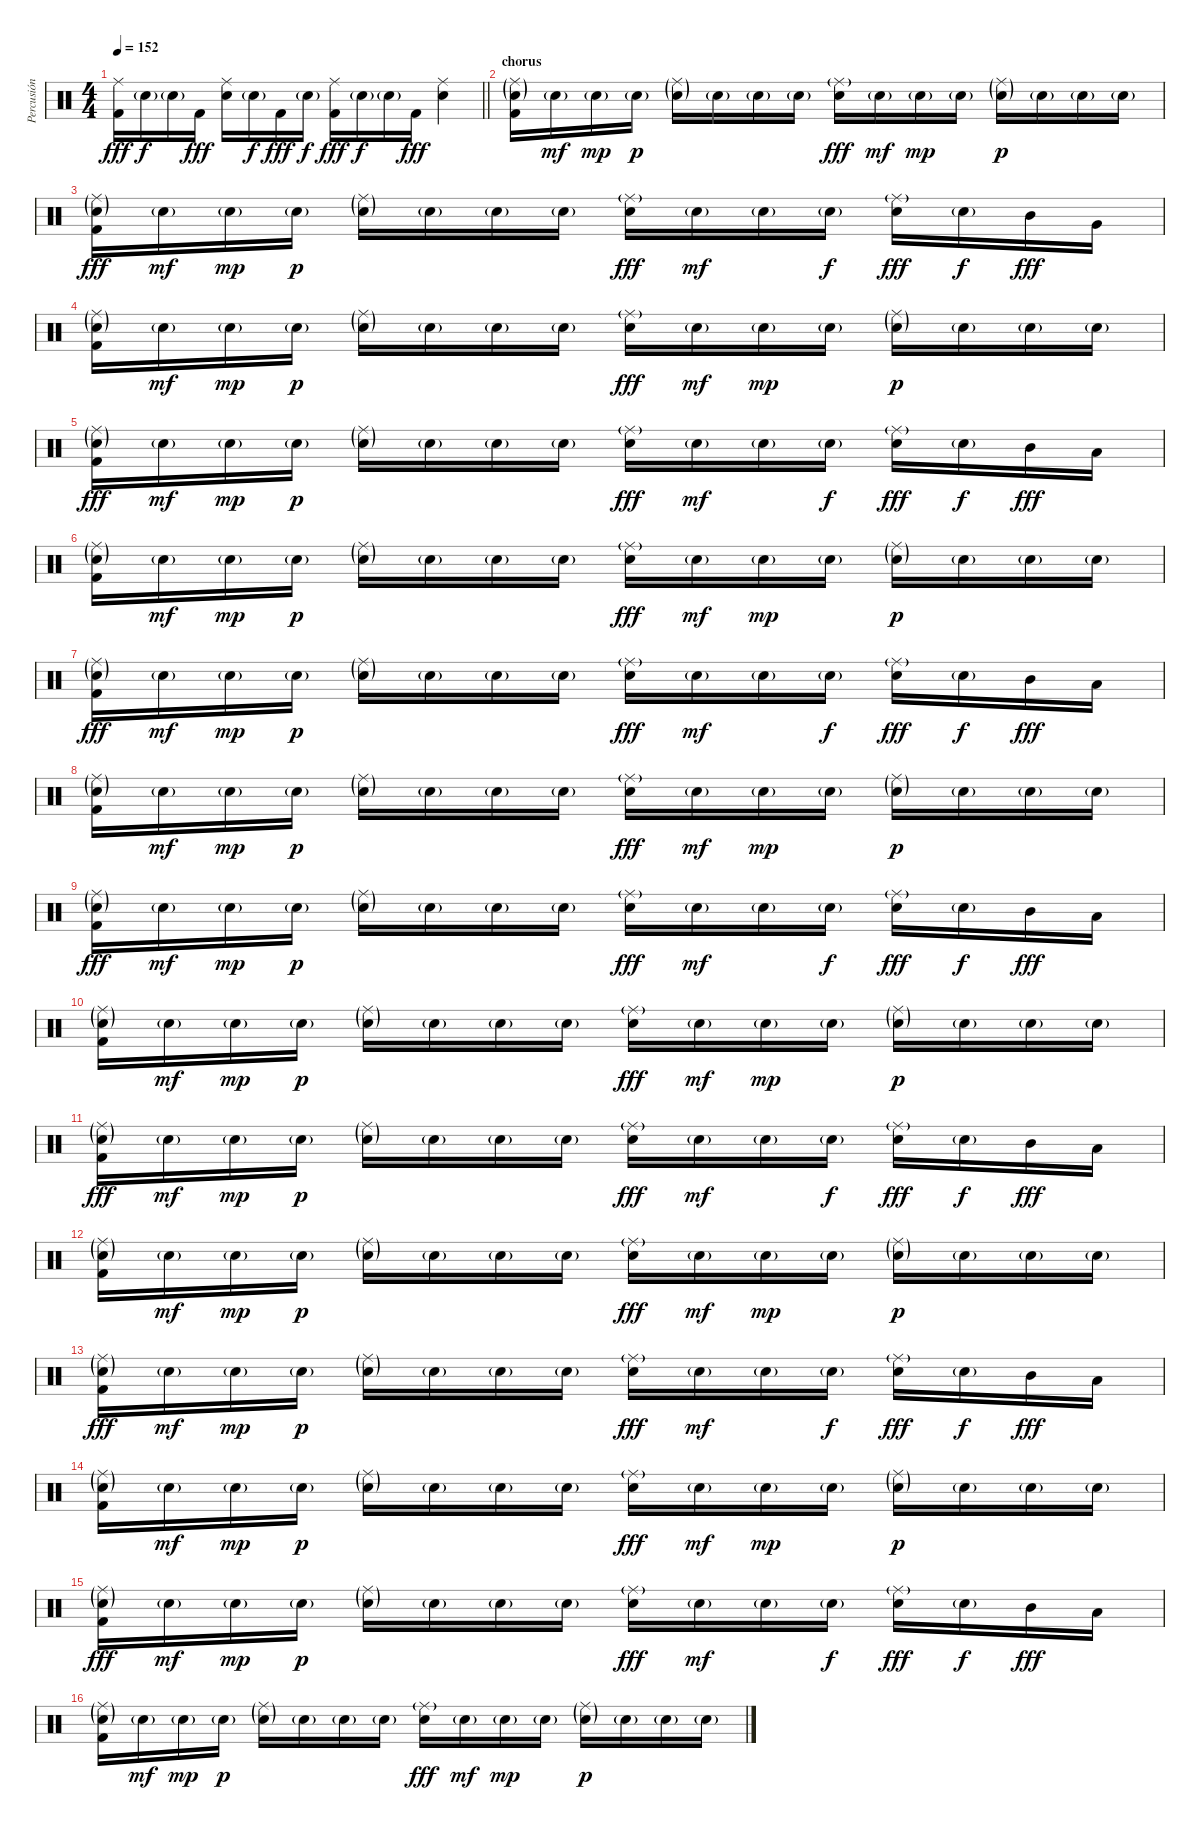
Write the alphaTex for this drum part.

\track ("Percusión" "Percusión") {instrument percussion}
\staff {score}
\articulation defaults
\ts (4 4)
\tempo 152
\clef neutral
\barLineRight lightlight
\ks c
("Ride (middle)" "Kick (hit) 2").16{dy fff} "Snare (hit) 2"{g}.16{dy f} "Snare (hit) 2"{g}.16 "Kick (hit) 2".16{dy fff} ("Ride (middle)" "Snare (hit) 2").16 "Snare (hit) 2"{g}.16{dy f} "Kick (hit) 2".16{dy fff} "Snare (hit) 2"{g}.16{dy f} ("Ride (middle)" "Kick (hit) 2").16{dy fff} "Snare (hit) 2"{g}.16{dy f} "Snare (hit) 2"{g}.16 "Kick (hit) 2".16{dy fff} ("Ride (middle)" "Snare (hit) 2").4 |
\section ("" "chorus")
("Ride (middle)"{g} "Snare (hit) 2"{g} "Kick (hit) 2").16 "Snare (hit) 2"{g}.16{dy mf} "Snare (hit) 2"{g}.16{dy mp} "Snare (hit) 2"{g}.16{dy p} ("Ride (middle)"{g} "Snare (hit) 2"{g}).16 "Snare (hit) 2"{g}.16 "Snare (hit) 2"{g}.16 "Snare (hit) 2"{g}.16 ("Ride (middle)"{g} "Snare (hit) 2").16{dy fff} "Snare (hit) 2"{g}.16{dy mf} "Snare (hit) 2"{g}.16{dy mp} "Snare (hit) 2"{g}.16 ("Ride (middle)"{g} "Snare (hit) 2"{g}).16{dy p} "Snare (hit) 2"{g}.16 "Snare (hit) 2"{g}.16 "Snare (hit) 2"{g}.16 |
("Ride (middle)"{g} "Snare (hit) 2"{g} "Kick (hit) 2").16{dy fff} "Snare (hit) 2"{g}.16{dy mf} "Snare (hit) 2"{g}.16{dy mp} "Snare (hit) 2"{g}.16{dy p} ("Ride (middle)"{g} "Snare (hit) 2"{g}).16 "Snare (hit) 2"{g}.16 "Snare (hit) 2"{g}.16 "Snare (hit) 2"{g}.16 ("Ride (middle)"{g} "Snare (hit) 2").16{dy fff} "Snare (hit) 2"{g}.16{dy mf} "Snare (hit) 2"{g}.16 "Snare (hit) 2"{g}.16{dy f} ("Ride (middle)"{g} "Snare (hit) 2").16{dy fff} "Snare (hit) 2"{g}.16{dy f} "Mid Tom (hit)".16{dy fff} "Very Low Tom (hit)".16 |
("Ride (middle)"{g} "Snare (hit) 2"{g} "Kick (hit) 2").16 "Snare (hit) 2"{g}.16{dy mf} "Snare (hit) 2"{g}.16{dy mp} "Snare (hit) 2"{g}.16{dy p} ("Ride (middle)"{g} "Snare (hit) 2"{g}).16 "Snare (hit) 2"{g}.16 "Snare (hit) 2"{g}.16 "Snare (hit) 2"{g}.16 ("Ride (middle)"{g} "Snare (hit) 2").16{dy fff} "Snare (hit) 2"{g}.16{dy mf} "Snare (hit) 2"{g}.16{dy mp} "Snare (hit) 2"{g}.16 ("Ride (middle)"{g} "Snare (hit) 2"{g}).16{dy p} "Snare (hit) 2"{g}.16 "Snare (hit) 2"{g}.16 "Snare (hit) 2"{g}.16 |
("Ride (middle)"{g} "Snare (hit) 2"{g} "Kick (hit) 2").16{dy fff} "Snare (hit) 2"{g}.16{dy mf} "Snare (hit) 2"{g}.16{dy mp} "Snare (hit) 2"{g}.16{dy p} ("Ride (middle)"{g} "Snare (hit) 2"{g}).16 "Snare (hit) 2"{g}.16 "Snare (hit) 2"{g}.16 "Snare (hit) 2"{g}.16 ("Ride (middle)"{g} "Snare (hit) 2").16{dy fff} "Snare (hit) 2"{g}.16{dy mf} "Snare (hit) 2"{g}.16 "Snare (hit) 2"{g}.16{dy f} ("Ride (middle)"{g} "Snare (hit) 2").16{dy fff} "Snare (hit) 2"{g}.16{dy f} "Mid Tom (hit)".16{dy fff} "Low Tom (hit)".16 |
("Ride (middle)"{g} "Snare (hit) 2"{g} "Kick (hit) 2").16 "Snare (hit) 2"{g}.16{dy mf} "Snare (hit) 2"{g}.16{dy mp} "Snare (hit) 2"{g}.16{dy p} ("Ride (middle)"{g} "Snare (hit) 2"{g}).16 "Snare (hit) 2"{g}.16 "Snare (hit) 2"{g}.16 "Snare (hit) 2"{g}.16 ("Ride (middle)"{g} "Snare (hit) 2").16{dy fff} "Snare (hit) 2"{g}.16{dy mf} "Snare (hit) 2"{g}.16{dy mp} "Snare (hit) 2"{g}.16 ("Ride (middle)"{g} "Snare (hit) 2"{g}).16{dy p} "Snare (hit) 2"{g}.16 "Snare (hit) 2"{g}.16 "Snare (hit) 2"{g}.16 |
("Ride (middle)"{g} "Snare (hit) 2"{g} "Kick (hit) 2").16{dy fff} "Snare (hit) 2"{g}.16{dy mf} "Snare (hit) 2"{g}.16{dy mp} "Snare (hit) 2"{g}.16{dy p} ("Ride (middle)"{g} "Snare (hit) 2"{g}).16 "Snare (hit) 2"{g}.16 "Snare (hit) 2"{g}.16 "Snare (hit) 2"{g}.16 ("Ride (middle)"{g} "Snare (hit) 2").16{dy fff} "Snare (hit) 2"{g}.16{dy mf} "Snare (hit) 2"{g}.16 "Snare (hit) 2"{g}.16{dy f} ("Ride (middle)"{g} "Snare (hit) 2").16{dy fff} "Snare (hit) 2"{g}.16{dy f} "Mid Tom (hit)".16{dy fff} "Low Tom (hit)".16 |
("Ride (middle)"{g} "Snare (hit) 2"{g} "Kick (hit) 2").16 "Snare (hit) 2"{g}.16{dy mf} "Snare (hit) 2"{g}.16{dy mp} "Snare (hit) 2"{g}.16{dy p} ("Ride (middle)"{g} "Snare (hit) 2"{g}).16 "Snare (hit) 2"{g}.16 "Snare (hit) 2"{g}.16 "Snare (hit) 2"{g}.16 ("Ride (middle)"{g} "Snare (hit) 2").16{dy fff} "Snare (hit) 2"{g}.16{dy mf} "Snare (hit) 2"{g}.16{dy mp} "Snare (hit) 2"{g}.16 ("Ride (middle)"{g} "Snare (hit) 2"{g}).16{dy p} "Snare (hit) 2"{g}.16 "Snare (hit) 2"{g}.16 "Snare (hit) 2"{g}.16 |
("Ride (middle)"{g} "Snare (hit) 2"{g} "Kick (hit) 2").16{dy fff} "Snare (hit) 2"{g}.16{dy mf} "Snare (hit) 2"{g}.16{dy mp} "Snare (hit) 2"{g}.16{dy p} ("Ride (middle)"{g} "Snare (hit) 2"{g}).16 "Snare (hit) 2"{g}.16 "Snare (hit) 2"{g}.16 "Snare (hit) 2"{g}.16 ("Ride (middle)"{g} "Snare (hit) 2").16{dy fff} "Snare (hit) 2"{g}.16{dy mf} "Snare (hit) 2"{g}.16 "Snare (hit) 2"{g}.16{dy f} ("Ride (middle)"{g} "Snare (hit) 2").16{dy fff} "Snare (hit) 2"{g}.16{dy f} "Mid Tom (hit)".16{dy fff} "Low Tom (hit)".16 |
("Ride (middle)"{g} "Snare (hit) 2"{g} "Kick (hit) 2").16 "Snare (hit) 2"{g}.16{dy mf} "Snare (hit) 2"{g}.16{dy mp} "Snare (hit) 2"{g}.16{dy p} ("Ride (middle)"{g} "Snare (hit) 2"{g}).16 "Snare (hit) 2"{g}.16 "Snare (hit) 2"{g}.16 "Snare (hit) 2"{g}.16 ("Ride (middle)"{g} "Snare (hit) 2").16{dy fff} "Snare (hit) 2"{g}.16{dy mf} "Snare (hit) 2"{g}.16{dy mp} "Snare (hit) 2"{g}.16 ("Ride (middle)"{g} "Snare (hit) 2"{g}).16{dy p} "Snare (hit) 2"{g}.16 "Snare (hit) 2"{g}.16 "Snare (hit) 2"{g}.16 |
("Ride (middle)"{g} "Snare (hit) 2"{g} "Kick (hit) 2").16{dy fff} "Snare (hit) 2"{g}.16{dy mf} "Snare (hit) 2"{g}.16{dy mp} "Snare (hit) 2"{g}.16{dy p} ("Ride (middle)"{g} "Snare (hit) 2"{g}).16 "Snare (hit) 2"{g}.16 "Snare (hit) 2"{g}.16 "Snare (hit) 2"{g}.16 ("Ride (middle)"{g} "Snare (hit) 2").16{dy fff} "Snare (hit) 2"{g}.16{dy mf} "Snare (hit) 2"{g}.16 "Snare (hit) 2"{g}.16{dy f} ("Ride (middle)"{g} "Snare (hit) 2").16{dy fff} "Snare (hit) 2"{g}.16{dy f} "Mid Tom (hit)".16{dy fff} "Low Tom (hit)".16 |
("Ride (middle)"{g} "Snare (hit) 2"{g} "Kick (hit) 2").16 "Snare (hit) 2"{g}.16{dy mf} "Snare (hit) 2"{g}.16{dy mp} "Snare (hit) 2"{g}.16{dy p} ("Ride (middle)"{g} "Snare (hit) 2"{g}).16 "Snare (hit) 2"{g}.16 "Snare (hit) 2"{g}.16 "Snare (hit) 2"{g}.16 ("Ride (middle)"{g} "Snare (hit) 2").16{dy fff} "Snare (hit) 2"{g}.16{dy mf} "Snare (hit) 2"{g}.16{dy mp} "Snare (hit) 2"{g}.16 ("Ride (middle)"{g} "Snare (hit) 2"{g}).16{dy p} "Snare (hit) 2"{g}.16 "Snare (hit) 2"{g}.16 "Snare (hit) 2"{g}.16 |
("Ride (middle)"{g} "Snare (hit) 2"{g} "Kick (hit) 2").16{dy fff} "Snare (hit) 2"{g}.16{dy mf} "Snare (hit) 2"{g}.16{dy mp} "Snare (hit) 2"{g}.16{dy p} ("Ride (middle)"{g} "Snare (hit) 2"{g}).16 "Snare (hit) 2"{g}.16 "Snare (hit) 2"{g}.16 "Snare (hit) 2"{g}.16 ("Ride (middle)"{g} "Snare (hit) 2").16{dy fff} "Snare (hit) 2"{g}.16{dy mf} "Snare (hit) 2"{g}.16 "Snare (hit) 2"{g}.16{dy f} ("Ride (middle)"{g} "Snare (hit) 2").16{dy fff} "Snare (hit) 2"{g}.16{dy f} "Mid Tom (hit)".16{dy fff} "Low Tom (hit)".16 |
("Ride (middle)"{g} "Snare (hit) 2"{g} "Kick (hit) 2").16 "Snare (hit) 2"{g}.16{dy mf} "Snare (hit) 2"{g}.16{dy mp} "Snare (hit) 2"{g}.16{dy p} ("Ride (middle)"{g} "Snare (hit) 2"{g}).16 "Snare (hit) 2"{g}.16 "Snare (hit) 2"{g}.16 "Snare (hit) 2"{g}.16 ("Ride (middle)"{g} "Snare (hit) 2").16{dy fff} "Snare (hit) 2"{g}.16{dy mf} "Snare (hit) 2"{g}.16{dy mp} "Snare (hit) 2"{g}.16 ("Ride (middle)"{g} "Snare (hit) 2"{g}).16{dy p} "Snare (hit) 2"{g}.16 "Snare (hit) 2"{g}.16 "Snare (hit) 2"{g}.16 |
("Ride (middle)"{g} "Snare (hit) 2"{g} "Kick (hit) 2").16{dy fff} "Snare (hit) 2"{g}.16{dy mf} "Snare (hit) 2"{g}.16{dy mp} "Snare (hit) 2"{g}.16{dy p} ("Ride (middle)"{g} "Snare (hit) 2"{g}).16 "Snare (hit) 2"{g}.16 "Snare (hit) 2"{g}.16 "Snare (hit) 2"{g}.16 ("Ride (middle)"{g} "Snare (hit) 2").16{dy fff} "Snare (hit) 2"{g}.16{dy mf} "Snare (hit) 2"{g}.16 "Snare (hit) 2"{g}.16{dy f} ("Ride (middle)"{g} "Snare (hit) 2").16{dy fff} "Snare (hit) 2"{g}.16{dy f} "Mid Tom (hit)".16{dy fff} "Low Tom (hit)".16 |
("Ride (middle)"{g} "Snare (hit) 2"{g} "Kick (hit) 2").16 "Snare (hit) 2"{g}.16{dy mf} "Snare (hit) 2"{g}.16{dy mp} "Snare (hit) 2"{g}.16{dy p} ("Ride (middle)"{g} "Snare (hit) 2"{g}).16 "Snare (hit) 2"{g}.16 "Snare (hit) 2"{g}.16 "Snare (hit) 2"{g}.16 ("Ride (middle)"{g} "Snare (hit) 2").16{dy fff} "Snare (hit) 2"{g}.16{dy mf} "Snare (hit) 2"{g}.16{dy mp} "Snare (hit) 2"{g}.16 ("Ride (middle)"{g} "Snare (hit) 2"{g}).16{dy p} "Snare (hit) 2"{g}.16 "Snare (hit) 2"{g}.16 "Snare (hit) 2"{g}.16
